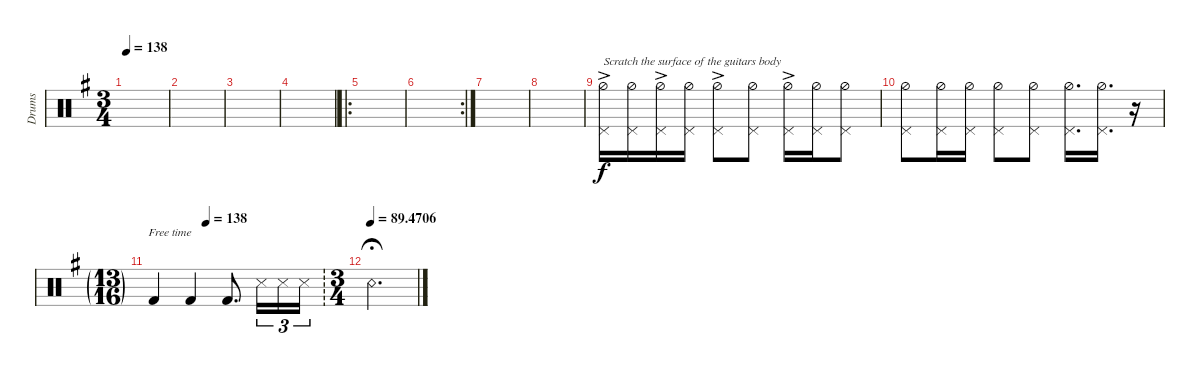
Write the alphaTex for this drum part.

\defaultSystemsLayout 4
\bracketExtendMode groupsimilarinstruments
\otherSystemsTrackNameOrientation horizontal
\track ("Drumkit" "Drums") {instrument percussion}
\staff {score}
\articulation defaults
\ts (3 4)
\scale
0.303386
\tempo 138
\accidentals auto
\clef neutral
\ottava regular
\simile none
\ks eminor
|
\scale
0.384948 |
\scale
0.311667 |
\scale
0.458369 |
\ro
\scale
0.279951 |
\rc 2
\scale
0.261724 |
\scale
0.385093 |
\scale
0.298137 |
\scale
0.31677 ("Pedal Hi-Hat (hit)"{ac acc forcenatural} "Hi-Hat (half)"{acc forcenatural}).16{txt "Scratch the surface of the guitars body" beam Down} ("Pedal Hi-Hat (hit)"{acc forcenatural} "Hi-Hat (half)"{acc forcenatural}).16{beam Down} ("Pedal Hi-Hat (hit)"{ac acc forcenatural} "Hi-Hat (half)"{acc forcenatural}).16{beam Down} ("Pedal Hi-Hat (hit)"{acc forcenatural} "Hi-Hat (half)"{acc forcenatural}).16{beam Down} ("Pedal Hi-Hat (hit)"{ac acc forcenatural} "Hi-Hat (half)"{acc forcenatural}).8{beam Down} ("Pedal Hi-Hat (hit)"{acc forcenatural} "Hi-Hat (half)"{acc forcenatural}).8{beam Down} ("Pedal Hi-Hat (hit)"{ac acc forcenatural} "Hi-Hat (half)"{acc forcenatural}).16{beam Down} ("Pedal Hi-Hat (hit)"{acc forcenatural} "Hi-Hat (half)"{acc forcenatural}).16{beam Down} ("Pedal Hi-Hat (hit)"{acc forcenatural} "Hi-Hat (half)"{acc forcenatural}).8{beam Down} |
\scale
0.244335 ("Pedal Hi-Hat (hit)"{acc forcenatural} "Hi-Hat (half)"{acc forcenatural}).8{beam Down} ("Pedal Hi-Hat (hit)"{acc forcenatural} "Hi-Hat (half)"{acc forcenatural}).16{beam Down} ("Pedal Hi-Hat (hit)"{acc forcenatural} "Hi-Hat (half)"{acc forcenatural}).16{beam Down} ("Pedal Hi-Hat (hit)"{acc forcenatural} "Hi-Hat (half)"{acc forcenatural}).8{beam Down} ("Pedal Hi-Hat (hit)"{acc forcenatural} "Hi-Hat (half)"{acc forcenatural}).8{beam Down} ("Pedal Hi-Hat (hit)"{acc forcenatural} "Hi-Hat (half)"{acc forcenatural}).16{d beam Down} ("Pedal Hi-Hat (hit)"{acc forcenatural} "Hi-Hat (half)"{acc forcenatural}).16{d beam Down} r.16{beam Down} |
\ts (13 16)
\beaming (8 2 2 2)
\ft
\scale
0.414351
\tempo (138 0.3125)
"Kick (hit) 2"{acc forcenatural}.4{beam Up} "Kick (hit) 2"{acc forcenatural}.4{beam Up} "Kick (hit) 2"{acc forcenatural}.8{d beam Up} "Snare (side stick) 3"{acc forcenatural}.16{tu (3 2) beam Down} "Snare (side stick) 3"{acc forcenatural}.16{tu (3 2) beam Down} "Snare (side stick) 3"{acc forcenatural}.16{tu (3 2) beam Down} |
\ts (3 4)
\beaming (8 2 2 2)
\scale
0.242379
\tempo (89.4706)
"Snare (rim shot)"{acc forcenatural}.2{d fermata (medium 0.5) beam Down} |
\scale
0.234343 |
\scale
0.17783 |
\scale
0.210727 |
\scale
0.186216
